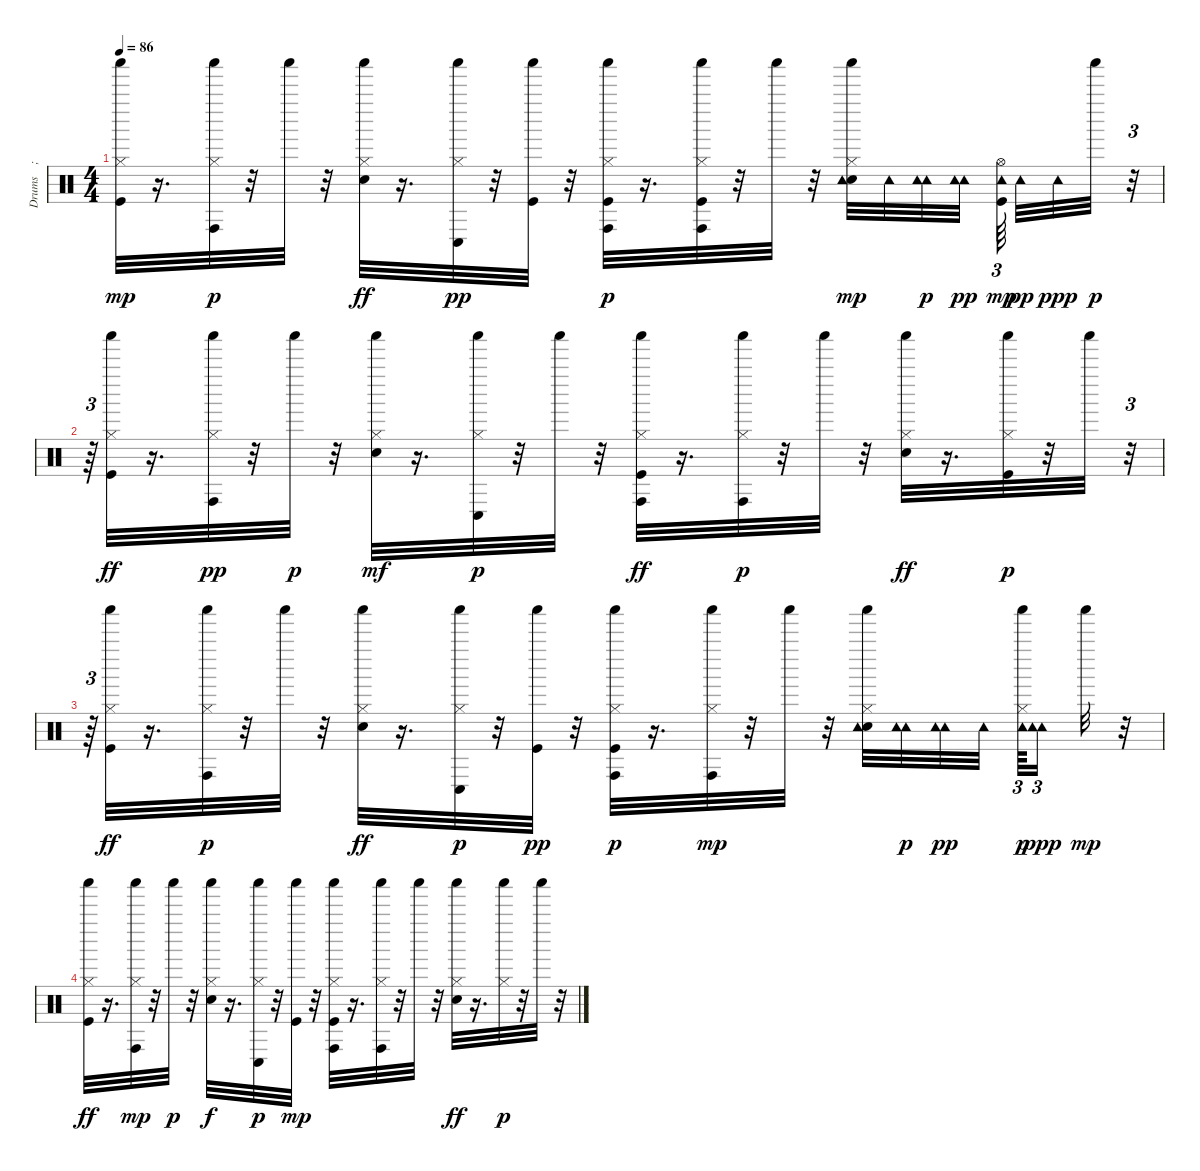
\track ("Drums    ; Standard" "Drums    ;") {instrument percussion}
\staff {score}
\articulation defaults
\ts (4 4)
\tempo 86
\clef neutral
\ks c
("Shaker (hit)" "Kick (hit)" "Hi-Hat (closed)").32{dy mp} r.16{d} ("Shaker (hit)" "Conga high (hit)" "Hi-Hat (closed)").32{dy p} r.32 "Shaker (hit)".32 r.32 ("Electric Snare (hit)" "Shaker (hit)" "Hi-Hat (closed)").32{dy ff} r.16{d} ("Shaker (hit)" "Conga low (hit)" "Hi-Hat (closed)").32{dy pp} r.32 ("Shaker (hit)" "Kick (hit)").32 r.32 ("Kick (hit)" "Shaker (hit)" "Hi-Hat (closed)" "Conga high (hit)").32{dy p} r.16{d} ("Kick (hit)" "Hi-Hat (closed)" "Shaker (hit)" "Conga high (hit)").32 r.32 "Shaker (hit)".32 r.32 ("Electric Snare (hit)" "Hi-Hat (closed)" "Shaker (hit)" "Tambourine (hit)").32{dy mp} "Tambourine (hit)".32 ("Tambourine (hit)" "Tambourine (hit)").32{dy p} ("Tambourine (hit)" "Tambourine (hit)").32{dy pp} ("Tambourine (hit)" "Hi-Hat (open)" "Kick (hit)").64{tu (3 2) dy mp} "Tambourine (hit)".32{dy pp} "Tambourine (hit)".32{dy ppp} "Shaker (hit)".32{dy p} r.32{tu (3 2)} |
r.64{tu (3 2)} ("Shaker (hit)" "Kick (hit)" "Hi-Hat (closed)").32{dy ff} r.16{d} ("Hi-Hat (closed)" "Conga high (hit)" "Shaker (hit)").32{dy pp} r.32 "Shaker (hit)".32{dy p} r.32 ("Shaker (hit)" "Electric Snare (hit)" "Hi-Hat (closed)").32{dy mf} r.16{d} ("Conga low (hit)" "Shaker (hit)" "Hi-Hat (closed)").32{dy p} r.32 "Shaker (hit)".32 r.32 ("Conga high (hit)" "Kick (hit)" "Shaker (hit)" "Hi-Hat (closed)").32{dy ff} r.16{d} ("Conga high (hit)" "Shaker (hit)" "Hi-Hat (closed)").32{dy p} r.32 "Shaker (hit)".32 r.32 ("Shaker (hit)" "Electric Snare (hit)" "Hi-Hat (closed)").32{dy ff} r.16{d} ("Kick (hit)" "Shaker (hit)" "Hi-Hat (closed)").32{dy p} r.32 "Shaker (hit)".32 r.32{tu (3 2)} |
r.64{tu (3 2)} ("Kick (hit)" "Shaker (hit)" "Hi-Hat (closed)").32{dy ff} r.16{d} ("Shaker (hit)" "Conga high (hit)" "Hi-Hat (closed)").32{dy p} r.32 "Shaker (hit)".32 r.32 ("Shaker (hit)" "Electric Snare (hit)" "Hi-Hat (closed)").32{dy ff} r.16{d} ("Conga low (hit)" "Shaker (hit)" "Hi-Hat (closed)").32{dy p} r.32 ("Shaker (hit)" "Kick (hit)").32{dy pp} r.32 ("Kick (hit)" "Shaker (hit)" "Conga high (hit)" "Hi-Hat (closed)").32{dy p} r.16{d} ("Shaker (hit)" "Hi-Hat (closed)" "Conga high (hit)").32{dy mp} r.32 "Shaker (hit)".32 r.32 ("Shaker (hit)" "Hi-Hat (closed)" "Electric Snare (hit)" "Tambourine (hit)").32 ("Tambourine (hit)" "Tambourine (hit)").32{dy p} ("Tambourine (hit)" "Tambourine (hit)").32{dy pp} "Tambourine (hit)".32 ("Tambourine (hit)" "Hi-Hat (closed)" "Shaker (hit)").64{tu (3 2) dy p} ("Tambourine (hit)" "Tambourine (hit)").16{tu (3 2) dy ppp} "Shaker (hit)".32{dy mp} r.32 |
("Kick (hit)" "Shaker (hit)" "Hi-Hat (closed)").32{dy ff} r.16{d} ("Shaker (hit)" "Conga high (hit)" "Hi-Hat (closed)").32{dy mp} r.32 "Shaker (hit)".32{dy p} r.32 ("Electric Snare (hit)" "Shaker (hit)" "Hi-Hat (closed)").32{dy f} r.16{d} ("Shaker (hit)" "Conga low (hit)" "Hi-Hat (closed)").32{dy p} r.32 ("Shaker (hit)" "Kick (hit)").32{dy mp} r.32 ("Kick (hit)" "Shaker (hit)" "Conga high (hit)" "Hi-Hat (closed)").32 r.16{d} ("Shaker (hit)" "Hi-Hat (closed)" "Conga high (hit)").32 r.32 "Shaker (hit)".32 r.32 ("Electric Snare (hit)" "Shaker (hit)" "Hi-Hat (closed)").32{dy ff} r.16{d} ("Shaker (hit)" "Hi-Hat (closed)").32{dy p} r.32 "Shaker (hit)".32 r.32
